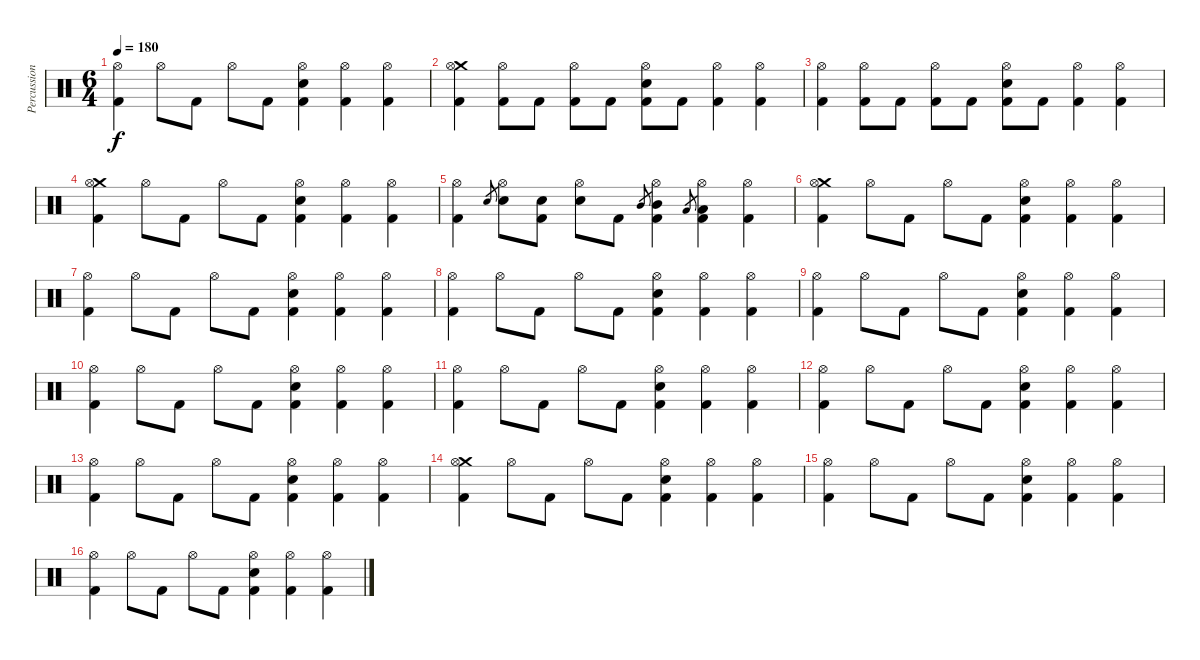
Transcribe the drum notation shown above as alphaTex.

\track ("Percussion" "Percussion") {instrument percussion}
\staff {score}
\articulation defaults
\ts (6 4)
\tempo 180
\clef neutral
\ks c
("Hi-Hat (open)" "Kick (hit) 2").4{dy f} "Hi-Hat (open)".8 "Kick (hit) 2".8 "Hi-Hat (open)".8 "Kick (hit) 2".8 ("Hi-Hat (open)" "Electric Snare (hit)" "Kick (hit) 2").4 ("Hi-Hat (open)" "Kick (hit) 2").4 ("Hi-Hat (open)" "Kick (hit) 2").4 |
("Crash medium (hit)" "Hi-Hat (open)" "Kick (hit) 2").4 ("Hi-Hat (open)" "Kick (hit) 2").8 "Kick (hit) 2".8 ("Hi-Hat (open)" "Kick (hit) 2").8 "Kick (hit) 2".8 ("Hi-Hat (open)" "Electric Snare (hit)" "Kick (hit) 2").8 "Kick (hit) 2".8 ("Hi-Hat (open)" "Kick (hit) 2").4 ("Hi-Hat (open)" "Kick (hit) 2").4 |
("Hi-Hat (open)" "Kick (hit) 2").4 ("Hi-Hat (open)" "Kick (hit) 2").8 "Kick (hit) 2".8 ("Hi-Hat (open)" "Kick (hit) 2").8 "Kick (hit) 2".8 ("Hi-Hat (open)" "Electric Snare (hit)" "Kick (hit) 2").8 "Kick (hit) 2".8 ("Hi-Hat (open)" "Kick (hit) 2").4 ("Hi-Hat (open)" "Kick (hit) 2").4 |
("Crash medium (hit)" "Hi-Hat (open)" "Kick (hit) 2").4 "Hi-Hat (open)".8 "Kick (hit) 2".8 "Hi-Hat (open)".8 "Kick (hit) 2".8 ("Hi-Hat (open)" "Electric Snare (hit)" "Kick (hit) 2").4 ("Hi-Hat (open)" "Kick (hit) 2").4 ("Hi-Hat (open)" "Kick (hit) 2").4 |
("Hi-Hat (open)" "Kick (hit) 2").4 "Electric Snare (hit)".8{gr} ("Hi-Hat (open)" "Electric Snare (hit)").8 ("Electric Snare (hit)" "Kick (hit) 2").8 ("Hi-Hat (open)" "Electric Snare (hit)").8 "Kick (hit) 2".8 "Mid Tom (hit)".8{gr} ("Hi-Hat (open)" "Mid Tom (hit)" "Kick (hit) 2").4 "Low Tom (hit)".8{gr} ("Hi-Hat (open)" "Low Tom (hit)" "Kick (hit) 2").4 ("Hi-Hat (open)" "Kick (hit) 2").4 |
("Crash medium (hit)" "Hi-Hat (open)" "Kick (hit) 2").4 "Hi-Hat (open)".8 "Kick (hit) 2".8 "Hi-Hat (open)".8 "Kick (hit) 2".8 ("Hi-Hat (open)" "Electric Snare (hit)" "Kick (hit) 2").4 ("Hi-Hat (open)" "Kick (hit) 2").4 ("Hi-Hat (open)" "Kick (hit) 2").4 |
("Hi-Hat (open)" "Kick (hit) 2").4 "Hi-Hat (open)".8 "Kick (hit) 2".8 "Hi-Hat (open)".8 "Kick (hit) 2".8 ("Hi-Hat (open)" "Electric Snare (hit)" "Kick (hit) 2").4 ("Hi-Hat (open)" "Kick (hit) 2").4 ("Hi-Hat (open)" "Kick (hit) 2").4 |
("Hi-Hat (open)" "Kick (hit) 2").4 "Hi-Hat (open)".8 "Kick (hit) 2".8 "Hi-Hat (open)".8 "Kick (hit) 2".8 ("Hi-Hat (open)" "Electric Snare (hit)" "Kick (hit) 2").4 ("Hi-Hat (open)" "Kick (hit) 2").4 ("Hi-Hat (open)" "Kick (hit) 2").4 |
("Hi-Hat (open)" "Kick (hit) 2").4 "Hi-Hat (open)".8 "Kick (hit) 2".8 "Hi-Hat (open)".8 "Kick (hit) 2".8 ("Hi-Hat (open)" "Electric Snare (hit)" "Kick (hit) 2").4 ("Hi-Hat (open)" "Kick (hit) 2").4 ("Hi-Hat (open)" "Kick (hit) 2").4 |
("Hi-Hat (open)" "Kick (hit) 2").4 "Hi-Hat (open)".8 "Kick (hit) 2".8 "Hi-Hat (open)".8 "Kick (hit) 2".8 ("Hi-Hat (open)" "Electric Snare (hit)" "Kick (hit) 2").4 ("Hi-Hat (open)" "Kick (hit) 2").4 ("Hi-Hat (open)" "Kick (hit) 2").4 |
("Hi-Hat (open)" "Kick (hit) 2").4 "Hi-Hat (open)".8 "Kick (hit) 2".8 "Hi-Hat (open)".8 "Kick (hit) 2".8 ("Hi-Hat (open)" "Electric Snare (hit)" "Kick (hit) 2").4 ("Hi-Hat (open)" "Kick (hit) 2").4 ("Hi-Hat (open)" "Kick (hit) 2").4 |
("Hi-Hat (open)" "Kick (hit) 2").4 "Hi-Hat (open)".8 "Kick (hit) 2".8 "Hi-Hat (open)".8 "Kick (hit) 2".8 ("Hi-Hat (open)" "Electric Snare (hit)" "Kick (hit) 2").4 ("Hi-Hat (open)" "Kick (hit) 2").4 ("Hi-Hat (open)" "Kick (hit) 2").4 |
("Hi-Hat (open)" "Kick (hit) 2").4 "Hi-Hat (open)".8 "Kick (hit) 2".8 "Hi-Hat (open)".8 "Kick (hit) 2".8 ("Hi-Hat (open)" "Electric Snare (hit)" "Kick (hit) 2").4 ("Hi-Hat (open)" "Kick (hit) 2").4 ("Hi-Hat (open)" "Kick (hit) 2").4 |
("Crash medium (hit)" "Hi-Hat (open)" "Kick (hit) 2").4 "Hi-Hat (open)".8 "Kick (hit) 2".8 "Hi-Hat (open)".8 "Kick (hit) 2".8 ("Hi-Hat (open)" "Electric Snare (hit)" "Kick (hit) 2").4 ("Hi-Hat (open)" "Kick (hit) 2").4 ("Hi-Hat (open)" "Kick (hit) 2").4 |
("Hi-Hat (open)" "Kick (hit) 2").4 "Hi-Hat (open)".8 "Kick (hit) 2".8 "Hi-Hat (open)".8 "Kick (hit) 2".8 ("Hi-Hat (open)" "Electric Snare (hit)" "Kick (hit) 2").4 ("Hi-Hat (open)" "Kick (hit) 2").4 ("Hi-Hat (open)" "Kick (hit) 2").4 |
("Hi-Hat (open)" "Kick (hit) 2").4 "Hi-Hat (open)".8 "Kick (hit) 2".8 "Hi-Hat (open)".8 "Kick (hit) 2".8 ("Hi-Hat (open)" "Electric Snare (hit)" "Kick (hit) 2").4 ("Hi-Hat (open)" "Kick (hit) 2").4 ("Hi-Hat (open)" "Kick (hit) 2").4
